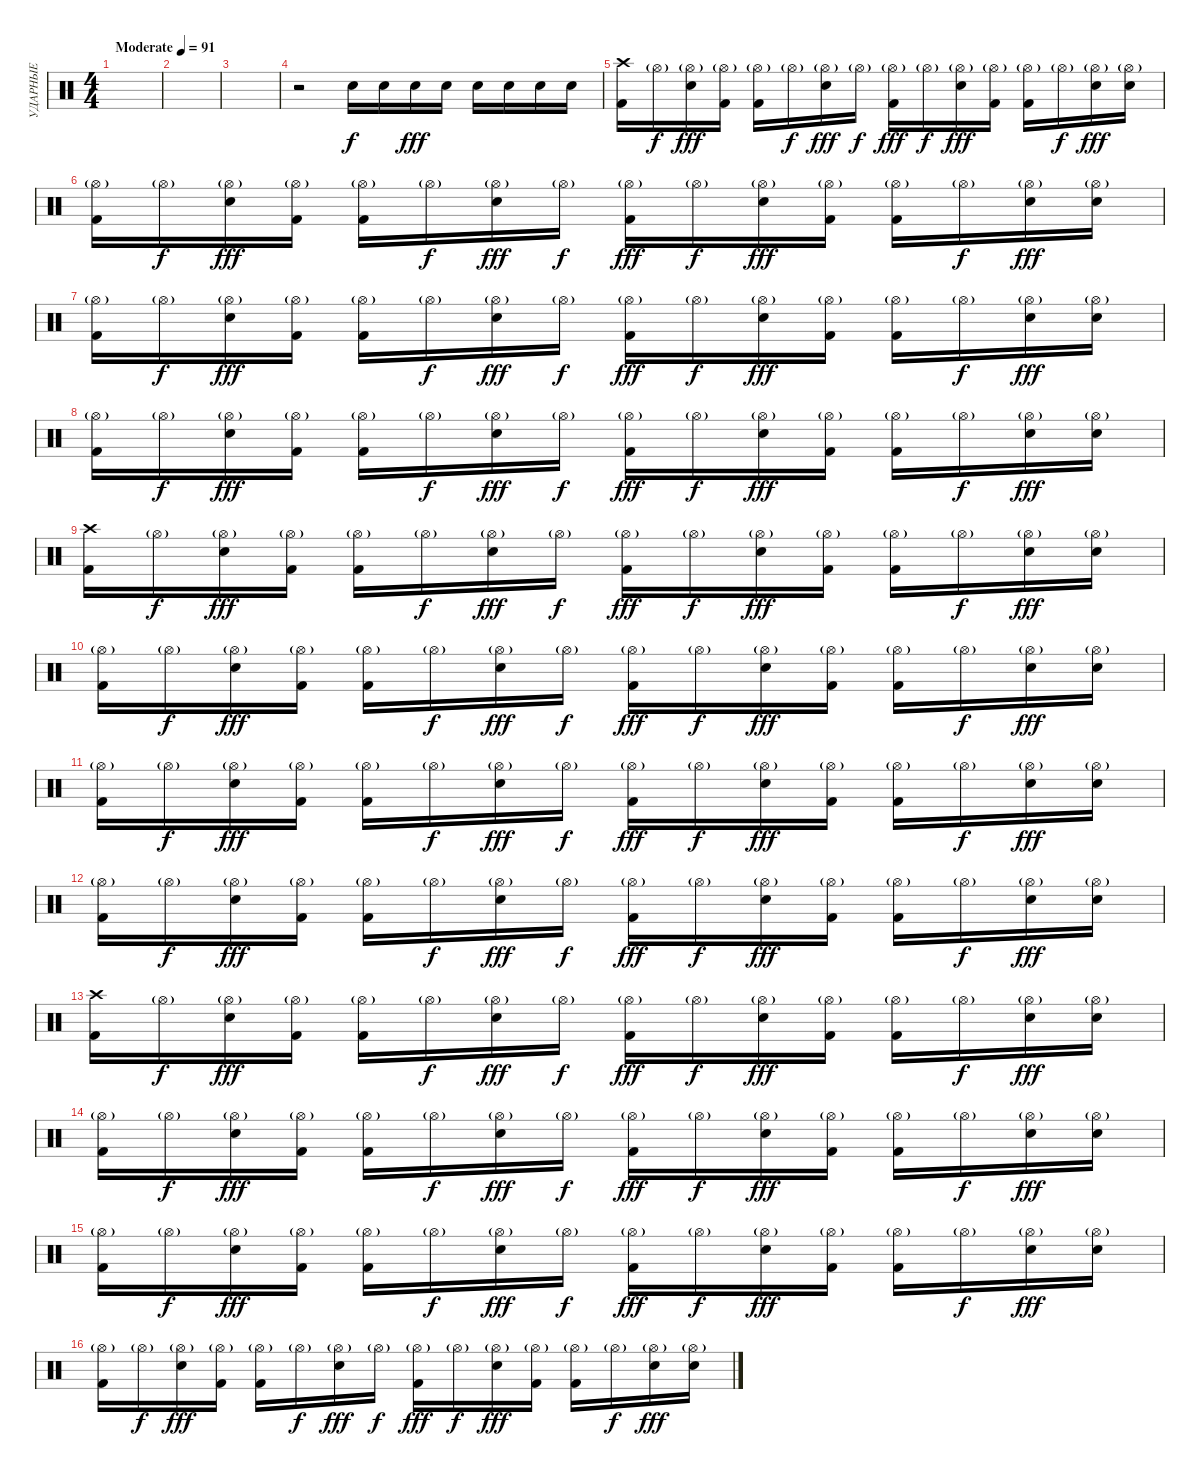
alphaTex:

\track ("УДАРНЫЕ" "УДАРНЫЕ") {instrument percussion}
\staff {score}
\articulation defaults
\ts (4 4)
\tempo (91 "Moderate")
\clef neutral
\ks c
|
|
|
r.2 "Snare (hit) 2".16 "Snare (hit) 2".16{dy f} "Snare (hit) 2".16{dy fff} "Snare (hit) 2".16 "Snare (hit) 2".16 "Snare (hit) 2".16 "Snare (hit) 2".16 "Snare (hit) 2".16 |
("Crash high (hit)" "Kick (hit) 2").16 "Hi-Hat (open)"{g}.16{dy f} ("Hi-Hat (open)"{g} "Snare (hit) 2").16{dy fff} ("Hi-Hat (open)"{g} "Kick (hit) 2").16 ("Hi-Hat (open)"{g} "Kick (hit) 2").16 "Hi-Hat (open)"{g}.16{dy f} ("Hi-Hat (open)"{g} "Snare (hit) 2").16{dy fff} "Hi-Hat (open)"{g}.16{dy f} ("Hi-Hat (open)"{g} "Kick (hit) 2").16{dy fff} "Hi-Hat (open)"{g}.16{dy f} ("Hi-Hat (open)"{g} "Snare (hit) 2").16{dy fff} ("Hi-Hat (open)"{g} "Kick (hit) 2").16 ("Hi-Hat (open)"{g} "Kick (hit) 2").16 "Hi-Hat (open)"{g}.16{dy f} ("Hi-Hat (open)"{g} "Snare (hit) 2").16{dy fff} ("Hi-Hat (open)"{g} "Snare (hit) 2").16 |
("Hi-Hat (open)"{g} "Kick (hit) 2").16 "Hi-Hat (open)"{g}.16{dy f} ("Hi-Hat (open)"{g} "Snare (hit) 2").16{dy fff} ("Hi-Hat (open)"{g} "Kick (hit) 2").16 ("Hi-Hat (open)"{g} "Kick (hit) 2").16 "Hi-Hat (open)"{g}.16{dy f} ("Hi-Hat (open)"{g} "Snare (hit) 2").16{dy fff} "Hi-Hat (open)"{g}.16{dy f} ("Hi-Hat (open)"{g} "Kick (hit) 2").16{dy fff} "Hi-Hat (open)"{g}.16{dy f} ("Hi-Hat (open)"{g} "Snare (hit) 2").16{dy fff} ("Hi-Hat (open)"{g} "Kick (hit) 2").16 ("Hi-Hat (open)"{g} "Kick (hit) 2").16 "Hi-Hat (open)"{g}.16{dy f} ("Hi-Hat (open)"{g} "Snare (hit) 2").16{dy fff} ("Hi-Hat (open)"{g} "Snare (hit) 2").16 |
("Hi-Hat (open)"{g} "Kick (hit) 2").16 "Hi-Hat (open)"{g}.16{dy f} ("Hi-Hat (open)"{g} "Snare (hit) 2").16{dy fff} ("Hi-Hat (open)"{g} "Kick (hit) 2").16 ("Hi-Hat (open)"{g} "Kick (hit) 2").16 "Hi-Hat (open)"{g}.16{dy f} ("Hi-Hat (open)"{g} "Snare (hit) 2").16{dy fff} "Hi-Hat (open)"{g}.16{dy f} ("Hi-Hat (open)"{g} "Kick (hit) 2").16{dy fff} "Hi-Hat (open)"{g}.16{dy f} ("Hi-Hat (open)"{g} "Snare (hit) 2").16{dy fff} ("Hi-Hat (open)"{g} "Kick (hit) 2").16 ("Hi-Hat (open)"{g} "Kick (hit) 2").16 "Hi-Hat (open)"{g}.16{dy f} ("Hi-Hat (open)"{g} "Snare (hit) 2").16{dy fff} ("Hi-Hat (open)"{g} "Snare (hit) 2").16 |
("Hi-Hat (open)"{g} "Kick (hit) 2").16 "Hi-Hat (open)"{g}.16{dy f} ("Hi-Hat (open)"{g} "Snare (hit) 2").16{dy fff} ("Hi-Hat (open)"{g} "Kick (hit) 2").16 ("Hi-Hat (open)"{g} "Kick (hit) 2").16 "Hi-Hat (open)"{g}.16{dy f} ("Hi-Hat (open)"{g} "Snare (hit) 2").16{dy fff} "Hi-Hat (open)"{g}.16{dy f} ("Hi-Hat (open)"{g} "Kick (hit) 2").16{dy fff} "Hi-Hat (open)"{g}.16{dy f} ("Hi-Hat (open)"{g} "Snare (hit) 2").16{dy fff} ("Hi-Hat (open)"{g} "Kick (hit) 2").16 ("Hi-Hat (open)"{g} "Kick (hit) 2").16 "Hi-Hat (open)"{g}.16{dy f} ("Hi-Hat (open)"{g} "Snare (hit) 2").16{dy fff} ("Hi-Hat (open)"{g} "Snare (hit) 2").16 |
("Crash high (hit)" "Kick (hit) 2").16 "Hi-Hat (open)"{g}.16{dy f} ("Hi-Hat (open)"{g} "Snare (hit) 2").16{dy fff} ("Hi-Hat (open)"{g} "Kick (hit) 2").16 ("Hi-Hat (open)"{g} "Kick (hit) 2").16 "Hi-Hat (open)"{g}.16{dy f} ("Hi-Hat (open)"{g} "Snare (hit) 2").16{dy fff} "Hi-Hat (open)"{g}.16{dy f} ("Hi-Hat (open)"{g} "Kick (hit) 2").16{dy fff} "Hi-Hat (open)"{g}.16{dy f} ("Hi-Hat (open)"{g} "Snare (hit) 2").16{dy fff} ("Hi-Hat (open)"{g} "Kick (hit) 2").16 ("Hi-Hat (open)"{g} "Kick (hit) 2").16 "Hi-Hat (open)"{g}.16{dy f} ("Hi-Hat (open)"{g} "Snare (hit) 2").16{dy fff} ("Hi-Hat (open)"{g} "Snare (hit) 2").16 |
("Hi-Hat (open)"{g} "Kick (hit) 2").16 "Hi-Hat (open)"{g}.16{dy f} ("Hi-Hat (open)"{g} "Snare (hit) 2").16{dy fff} ("Hi-Hat (open)"{g} "Kick (hit) 2").16 ("Hi-Hat (open)"{g} "Kick (hit) 2").16 "Hi-Hat (open)"{g}.16{dy f} ("Hi-Hat (open)"{g} "Snare (hit) 2").16{dy fff} "Hi-Hat (open)"{g}.16{dy f} ("Hi-Hat (open)"{g} "Kick (hit) 2").16{dy fff} "Hi-Hat (open)"{g}.16{dy f} ("Hi-Hat (open)"{g} "Snare (hit) 2").16{dy fff} ("Hi-Hat (open)"{g} "Kick (hit) 2").16 ("Hi-Hat (open)"{g} "Kick (hit) 2").16 "Hi-Hat (open)"{g}.16{dy f} ("Hi-Hat (open)"{g} "Snare (hit) 2").16{dy fff} ("Hi-Hat (open)"{g} "Snare (hit) 2").16 |
("Hi-Hat (open)"{g} "Kick (hit) 2").16 "Hi-Hat (open)"{g}.16{dy f} ("Hi-Hat (open)"{g} "Snare (hit) 2").16{dy fff} ("Hi-Hat (open)"{g} "Kick (hit) 2").16 ("Hi-Hat (open)"{g} "Kick (hit) 2").16 "Hi-Hat (open)"{g}.16{dy f} ("Hi-Hat (open)"{g} "Snare (hit) 2").16{dy fff} "Hi-Hat (open)"{g}.16{dy f} ("Hi-Hat (open)"{g} "Kick (hit) 2").16{dy fff} "Hi-Hat (open)"{g}.16{dy f} ("Hi-Hat (open)"{g} "Snare (hit) 2").16{dy fff} ("Hi-Hat (open)"{g} "Kick (hit) 2").16 ("Hi-Hat (open)"{g} "Kick (hit) 2").16 "Hi-Hat (open)"{g}.16{dy f} ("Hi-Hat (open)"{g} "Snare (hit) 2").16{dy fff} ("Hi-Hat (open)"{g} "Snare (hit) 2").16 |
("Hi-Hat (open)"{g} "Kick (hit) 2").16 "Hi-Hat (open)"{g}.16{dy f} ("Hi-Hat (open)"{g} "Snare (hit) 2").16{dy fff} ("Hi-Hat (open)"{g} "Kick (hit) 2").16 ("Hi-Hat (open)"{g} "Kick (hit) 2").16 "Hi-Hat (open)"{g}.16{dy f} ("Hi-Hat (open)"{g} "Snare (hit) 2").16{dy fff} "Hi-Hat (open)"{g}.16{dy f} ("Hi-Hat (open)"{g} "Kick (hit) 2").16{dy fff} "Hi-Hat (open)"{g}.16{dy f} ("Hi-Hat (open)"{g} "Snare (hit) 2").16{dy fff} ("Hi-Hat (open)"{g} "Kick (hit) 2").16 ("Hi-Hat (open)"{g} "Kick (hit) 2").16 "Hi-Hat (open)"{g}.16{dy f} ("Hi-Hat (open)"{g} "Snare (hit) 2").16{dy fff} ("Hi-Hat (open)"{g} "Snare (hit) 2").16 |
("Crash high (hit)" "Kick (hit) 2").16 "Hi-Hat (open)"{g}.16{dy f} ("Hi-Hat (open)"{g} "Snare (hit) 2").16{dy fff} ("Hi-Hat (open)"{g} "Kick (hit) 2").16 ("Hi-Hat (open)"{g} "Kick (hit) 2").16 "Hi-Hat (open)"{g}.16{dy f} ("Hi-Hat (open)"{g} "Snare (hit) 2").16{dy fff} "Hi-Hat (open)"{g}.16{dy f} ("Hi-Hat (open)"{g} "Kick (hit) 2").16{dy fff} "Hi-Hat (open)"{g}.16{dy f} ("Hi-Hat (open)"{g} "Snare (hit) 2").16{dy fff} ("Hi-Hat (open)"{g} "Kick (hit) 2").16 ("Hi-Hat (open)"{g} "Kick (hit) 2").16 "Hi-Hat (open)"{g}.16{dy f} ("Hi-Hat (open)"{g} "Snare (hit) 2").16{dy fff} ("Hi-Hat (open)"{g} "Snare (hit) 2").16 |
("Hi-Hat (open)"{g} "Kick (hit) 2").16 "Hi-Hat (open)"{g}.16{dy f} ("Hi-Hat (open)"{g} "Snare (hit) 2").16{dy fff} ("Hi-Hat (open)"{g} "Kick (hit) 2").16 ("Hi-Hat (open)"{g} "Kick (hit) 2").16 "Hi-Hat (open)"{g}.16{dy f} ("Hi-Hat (open)"{g} "Snare (hit) 2").16{dy fff} "Hi-Hat (open)"{g}.16{dy f} ("Hi-Hat (open)"{g} "Kick (hit) 2").16{dy fff} "Hi-Hat (open)"{g}.16{dy f} ("Hi-Hat (open)"{g} "Snare (hit) 2").16{dy fff} ("Hi-Hat (open)"{g} "Kick (hit) 2").16 ("Hi-Hat (open)"{g} "Kick (hit) 2").16 "Hi-Hat (open)"{g}.16{dy f} ("Hi-Hat (open)"{g} "Snare (hit) 2").16{dy fff} ("Hi-Hat (open)"{g} "Snare (hit) 2").16 |
("Hi-Hat (open)"{g} "Kick (hit) 2").16 "Hi-Hat (open)"{g}.16{dy f} ("Hi-Hat (open)"{g} "Snare (hit) 2").16{dy fff} ("Hi-Hat (open)"{g} "Kick (hit) 2").16 ("Hi-Hat (open)"{g} "Kick (hit) 2").16 "Hi-Hat (open)"{g}.16{dy f} ("Hi-Hat (open)"{g} "Snare (hit) 2").16{dy fff} "Hi-Hat (open)"{g}.16{dy f} ("Hi-Hat (open)"{g} "Kick (hit) 2").16{dy fff} "Hi-Hat (open)"{g}.16{dy f} ("Hi-Hat (open)"{g} "Snare (hit) 2").16{dy fff} ("Hi-Hat (open)"{g} "Kick (hit) 2").16 ("Hi-Hat (open)"{g} "Kick (hit) 2").16 "Hi-Hat (open)"{g}.16{dy f} ("Hi-Hat (open)"{g} "Snare (hit) 2").16{dy fff} ("Hi-Hat (open)"{g} "Snare (hit) 2").16 |
("Hi-Hat (open)"{g} "Kick (hit) 2").16 "Hi-Hat (open)"{g}.16{dy f} ("Hi-Hat (open)"{g} "Snare (hit) 2").16{dy fff} ("Hi-Hat (open)"{g} "Kick (hit) 2").16 ("Hi-Hat (open)"{g} "Kick (hit) 2").16 "Hi-Hat (open)"{g}.16{dy f} ("Hi-Hat (open)"{g} "Snare (hit) 2").16{dy fff} "Hi-Hat (open)"{g}.16{dy f} ("Hi-Hat (open)"{g} "Kick (hit) 2").16{dy fff} "Hi-Hat (open)"{g}.16{dy f} ("Hi-Hat (open)"{g} "Snare (hit) 2").16{dy fff} ("Hi-Hat (open)"{g} "Kick (hit) 2").16 ("Hi-Hat (open)"{g} "Kick (hit) 2").16 "Hi-Hat (open)"{g}.16{dy f} ("Hi-Hat (open)"{g} "Snare (hit) 2").16{dy fff} ("Hi-Hat (open)"{g} "Snare (hit) 2").16
